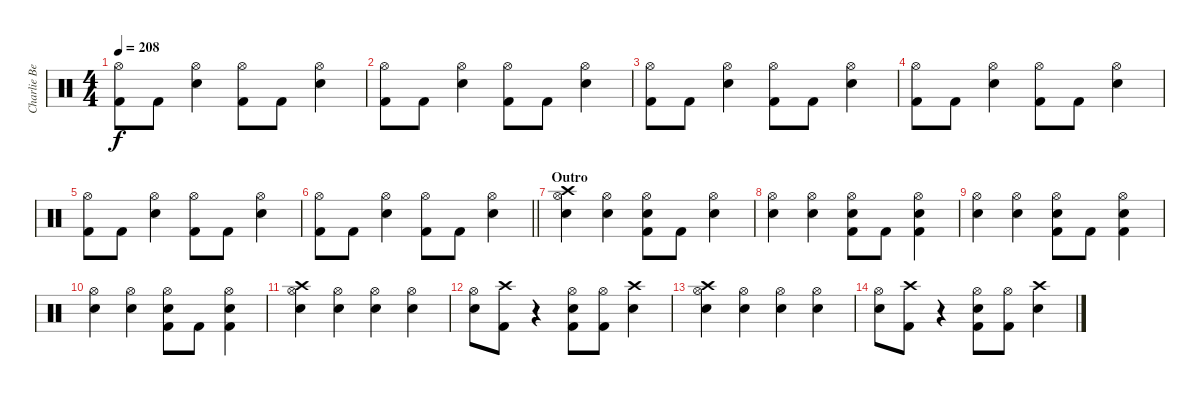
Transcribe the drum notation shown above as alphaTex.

\track ("Charlie Benate" "Charlie Be") {instrument percussion}
\staff {score}
\articulation defaults
\ts (4 4)
\tempo 208
\clef neutral
\ks c
("Hi-Hat (open)" "Kick (hit) 2").8{dy f} "Kick (hit) 2".8 ("Hi-Hat (open)" "Electric Snare (hit)").4 ("Hi-Hat (open)" "Kick (hit) 2").8 "Kick (hit) 2".8 ("Hi-Hat (open)" "Electric Snare (hit)").4 |
("Hi-Hat (open)" "Kick (hit) 2").8 "Kick (hit) 2".8 ("Hi-Hat (open)" "Electric Snare (hit)").4 ("Hi-Hat (open)" "Kick (hit) 2").8 "Kick (hit) 2".8 ("Hi-Hat (open)" "Electric Snare (hit)").4 |
("Hi-Hat (open)" "Kick (hit) 2").8 "Kick (hit) 2".8 ("Hi-Hat (open)" "Electric Snare (hit)").4 ("Hi-Hat (open)" "Kick (hit) 2").8 "Kick (hit) 2".8 ("Hi-Hat (open)" "Electric Snare (hit)").4 |
("Hi-Hat (open)" "Kick (hit) 2").8 "Kick (hit) 2".8 ("Hi-Hat (open)" "Electric Snare (hit)").4 ("Hi-Hat (open)" "Kick (hit) 2").8 "Kick (hit) 2".8 ("Hi-Hat (open)" "Electric Snare (hit)").4 |
("Hi-Hat (open)" "Kick (hit) 2").8 "Kick (hit) 2".8 ("Hi-Hat (open)" "Electric Snare (hit)").4 ("Hi-Hat (open)" "Kick (hit) 2").8 "Kick (hit) 2".8 ("Hi-Hat (open)" "Electric Snare (hit)").4 |
\barLineRight lightlight
("Hi-Hat (open)" "Kick (hit) 2").8 "Kick (hit) 2".8 ("Hi-Hat (open)" "Electric Snare (hit)").4 ("Hi-Hat (open)" "Kick (hit) 2").8 "Kick (hit) 2".8 ("Hi-Hat (open)" "Electric Snare (hit)").4 |
\section ("" "Outro")
("Hi-Hat (open)" "Electric Snare (hit)" "Crash high (hit)").4 ("Hi-Hat (open)" "Electric Snare (hit)").4 ("Hi-Hat (open)" "Electric Snare (hit)" "Kick (hit) 2").8 "Kick (hit) 2".8 ("Hi-Hat (open)" "Electric Snare (hit)").4 |
("Hi-Hat (open)" "Electric Snare (hit)").4 ("Hi-Hat (open)" "Electric Snare (hit)").4 ("Hi-Hat (open)" "Electric Snare (hit)" "Kick (hit) 2").8 "Kick (hit) 2".8 ("Hi-Hat (open)" "Electric Snare (hit)" "Kick (hit) 2").4 |
("Hi-Hat (open)" "Electric Snare (hit)").4 ("Hi-Hat (open)" "Electric Snare (hit)").4 ("Hi-Hat (open)" "Electric Snare (hit)" "Kick (hit) 2").8 "Kick (hit) 2".8 ("Hi-Hat (open)" "Electric Snare (hit)" "Kick (hit) 2").4 |
("Hi-Hat (open)" "Electric Snare (hit)").4 ("Hi-Hat (open)" "Electric Snare (hit)").4 ("Hi-Hat (open)" "Electric Snare (hit)" "Kick (hit) 2").8 "Kick (hit) 2".8 ("Hi-Hat (open)" "Electric Snare (hit)" "Kick (hit) 2").4 |
("Hi-Hat (open)" "Electric Snare (hit)" "Crash high (hit)").4 ("Hi-Hat (open)" "Electric Snare (hit)").4 ("Hi-Hat (open)" "Electric Snare (hit)").4 ("Hi-Hat (open)" "Electric Snare (hit)").4 |
("Hi-Hat (open)" "Electric Snare (hit)").8 ("Crash high (hit)" "Kick (hit) 2").8 r.4 ("Hi-Hat (open)" "Electric Snare (hit)" "Kick (hit) 2").8 ("Hi-Hat (open)" "Kick (hit) 2").8 ("Crash high (hit)" "Electric Snare (hit)").4 |
("Hi-Hat (open)" "Electric Snare (hit)" "Crash high (hit)").4 ("Hi-Hat (open)" "Electric Snare (hit)").4 ("Hi-Hat (open)" "Electric Snare (hit)").4 ("Hi-Hat (open)" "Electric Snare (hit)").4 |
("Hi-Hat (open)" "Electric Snare (hit)").8 ("Crash high (hit)" "Kick (hit) 2").8 r.4 ("Hi-Hat (open)" "Electric Snare (hit)" "Kick (hit) 2").8 ("Hi-Hat (open)" "Kick (hit) 2").8 ("Crash high (hit)" "Electric Snare (hit)").4
